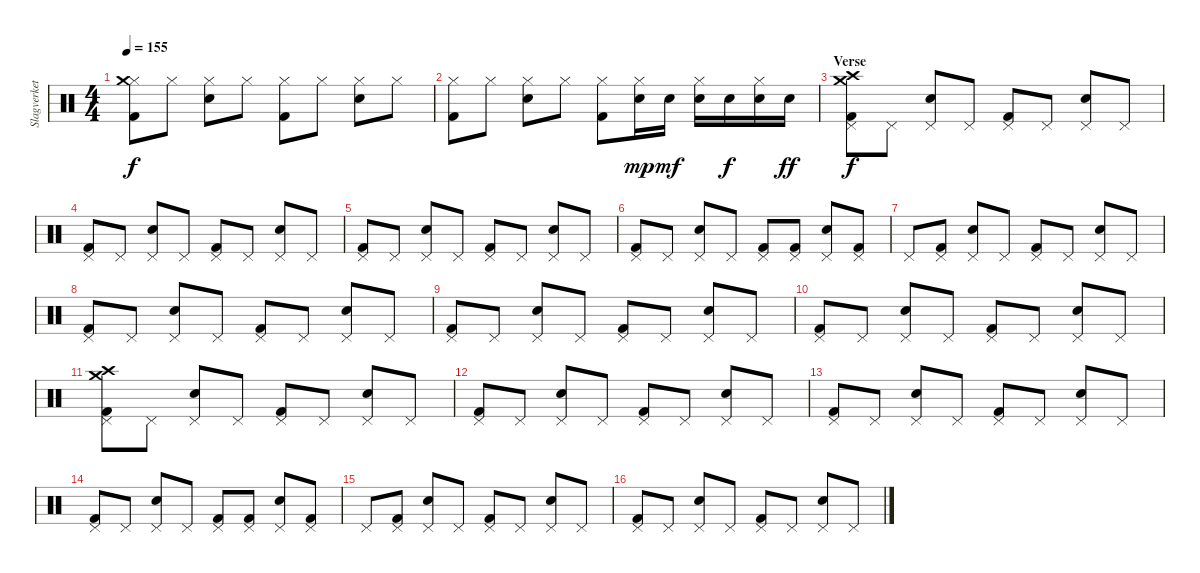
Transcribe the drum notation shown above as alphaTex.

\track ("Slagverket!" "Slagverket") {instrument percussion}
\staff {score}
\articulation defaults
\ts (4 4)
\tempo 155
\clef neutral
\ks c
("Hi-Hat (closed)" "Crash medium (hit)" "Kick (hit) 2").8{dy f} "Hi-Hat (closed)".8 ("Hi-Hat (closed)" "Electric Snare (hit)").8 "Hi-Hat (closed)".8 ("Hi-Hat (closed)" "Kick (hit) 2").8 "Hi-Hat (closed)".8 ("Hi-Hat (closed)" "Electric Snare (hit)").8 "Hi-Hat (closed)".8 |
("Hi-Hat (closed)" "Kick (hit) 2").8 "Hi-Hat (closed)".8 ("Hi-Hat (closed)" "Electric Snare (hit)").8 "Hi-Hat (closed)".8 ("Hi-Hat (closed)" "Kick (hit) 2").8 ("Hi-Hat (closed)" "Electric Snare (hit)").16{dy mp} "Electric Snare (hit)".16{dy mf} ("Hi-Hat (closed)" "Electric Snare (hit)").16 "Electric Snare (hit)".16{dy f} ("Hi-Hat (closed)" "Electric Snare (hit)").16 "Electric Snare (hit)".16{dy ff} |
\section ("" "Verse")
("Pedal Hi-Hat (hit)" "Crash medium (hit)" "Crash high (hit)" "Kick (hit) 2").8{dy f} "Pedal Hi-Hat (hit)".8 ("Pedal Hi-Hat (hit)" "Electric Snare (hit)").8 "Pedal Hi-Hat (hit)".8 ("Pedal Hi-Hat (hit)" "Kick (hit) 2").8 "Pedal Hi-Hat (hit)".8 ("Pedal Hi-Hat (hit)" "Electric Snare (hit)").8 "Pedal Hi-Hat (hit)".8 |
("Pedal Hi-Hat (hit)" "Kick (hit) 2").8 "Pedal Hi-Hat (hit)".8 ("Pedal Hi-Hat (hit)" "Electric Snare (hit)").8 "Pedal Hi-Hat (hit)".8 ("Pedal Hi-Hat (hit)" "Kick (hit) 2").8 "Pedal Hi-Hat (hit)".8 ("Pedal Hi-Hat (hit)" "Electric Snare (hit)").8 "Pedal Hi-Hat (hit)".8 |
("Pedal Hi-Hat (hit)" "Kick (hit) 2").8 "Pedal Hi-Hat (hit)".8 ("Pedal Hi-Hat (hit)" "Electric Snare (hit)").8 "Pedal Hi-Hat (hit)".8 ("Pedal Hi-Hat (hit)" "Kick (hit) 2").8 "Pedal Hi-Hat (hit)".8 ("Pedal Hi-Hat (hit)" "Electric Snare (hit)").8 "Pedal Hi-Hat (hit)".8 |
("Pedal Hi-Hat (hit)" "Kick (hit) 2").8 "Pedal Hi-Hat (hit)".8 ("Pedal Hi-Hat (hit)" "Electric Snare (hit)").8 "Pedal Hi-Hat (hit)".8 ("Pedal Hi-Hat (hit)" "Kick (hit) 2").8 ("Pedal Hi-Hat (hit)" "Kick (hit) 2").8 ("Pedal Hi-Hat (hit)" "Electric Snare (hit)").8 ("Pedal Hi-Hat (hit)" "Kick (hit) 2").8 |
"Pedal Hi-Hat (hit)".8 ("Pedal Hi-Hat (hit)" "Kick (hit) 2").8 ("Pedal Hi-Hat (hit)" "Electric Snare (hit)").8 "Pedal Hi-Hat (hit)".8 ("Pedal Hi-Hat (hit)" "Kick (hit) 2").8 "Pedal Hi-Hat (hit)".8 ("Pedal Hi-Hat (hit)" "Electric Snare (hit)").8 "Pedal Hi-Hat (hit)".8 |
("Pedal Hi-Hat (hit)" "Kick (hit) 2").8 "Pedal Hi-Hat (hit)".8 ("Pedal Hi-Hat (hit)" "Electric Snare (hit)").8 "Pedal Hi-Hat (hit)".8 ("Pedal Hi-Hat (hit)" "Kick (hit) 2").8 "Pedal Hi-Hat (hit)".8 ("Pedal Hi-Hat (hit)" "Electric Snare (hit)").8 "Pedal Hi-Hat (hit)".8 |
("Pedal Hi-Hat (hit)" "Kick (hit) 2").8 "Pedal Hi-Hat (hit)".8 ("Pedal Hi-Hat (hit)" "Electric Snare (hit)").8 "Pedal Hi-Hat (hit)".8 ("Pedal Hi-Hat (hit)" "Kick (hit) 2").8 "Pedal Hi-Hat (hit)".8 ("Pedal Hi-Hat (hit)" "Electric Snare (hit)").8 "Pedal Hi-Hat (hit)".8 |
("Pedal Hi-Hat (hit)" "Kick (hit) 2").8 "Pedal Hi-Hat (hit)".8 ("Pedal Hi-Hat (hit)" "Electric Snare (hit)").8 "Pedal Hi-Hat (hit)".8 ("Pedal Hi-Hat (hit)" "Kick (hit) 2").8 "Pedal Hi-Hat (hit)".8 ("Pedal Hi-Hat (hit)" "Electric Snare (hit)").8 "Pedal Hi-Hat (hit)".8 |
\section ("" "")
("Pedal Hi-Hat (hit)" "Crash medium (hit)" "Crash high (hit)" "Kick (hit) 2").8 "Pedal Hi-Hat (hit)".8 ("Pedal Hi-Hat (hit)" "Electric Snare (hit)").8 "Pedal Hi-Hat (hit)".8 ("Pedal Hi-Hat (hit)" "Kick (hit) 2").8 "Pedal Hi-Hat (hit)".8 ("Pedal Hi-Hat (hit)" "Electric Snare (hit)").8 "Pedal Hi-Hat (hit)".8 |
("Pedal Hi-Hat (hit)" "Kick (hit) 2").8 "Pedal Hi-Hat (hit)".8 ("Pedal Hi-Hat (hit)" "Electric Snare (hit)").8 "Pedal Hi-Hat (hit)".8 ("Pedal Hi-Hat (hit)" "Kick (hit) 2").8 "Pedal Hi-Hat (hit)".8 ("Pedal Hi-Hat (hit)" "Electric Snare (hit)").8 "Pedal Hi-Hat (hit)".8 |
("Pedal Hi-Hat (hit)" "Kick (hit) 2").8 "Pedal Hi-Hat (hit)".8 ("Pedal Hi-Hat (hit)" "Electric Snare (hit)").8 "Pedal Hi-Hat (hit)".8 ("Pedal Hi-Hat (hit)" "Kick (hit) 2").8 "Pedal Hi-Hat (hit)".8 ("Pedal Hi-Hat (hit)" "Electric Snare (hit)").8 "Pedal Hi-Hat (hit)".8 |
("Pedal Hi-Hat (hit)" "Kick (hit) 2").8 "Pedal Hi-Hat (hit)".8 ("Pedal Hi-Hat (hit)" "Electric Snare (hit)").8 "Pedal Hi-Hat (hit)".8 ("Pedal Hi-Hat (hit)" "Kick (hit) 2").8 ("Pedal Hi-Hat (hit)" "Kick (hit) 2").8 ("Pedal Hi-Hat (hit)" "Electric Snare (hit)").8 ("Pedal Hi-Hat (hit)" "Kick (hit) 2").8 |
"Pedal Hi-Hat (hit)".8 ("Pedal Hi-Hat (hit)" "Kick (hit) 2").8 ("Pedal Hi-Hat (hit)" "Electric Snare (hit)").8 "Pedal Hi-Hat (hit)".8 ("Pedal Hi-Hat (hit)" "Kick (hit) 2").8 "Pedal Hi-Hat (hit)".8 ("Pedal Hi-Hat (hit)" "Electric Snare (hit)").8 "Pedal Hi-Hat (hit)".8 |
("Pedal Hi-Hat (hit)" "Kick (hit) 2").8 "Pedal Hi-Hat (hit)".8 ("Pedal Hi-Hat (hit)" "Electric Snare (hit)").8 "Pedal Hi-Hat (hit)".8 ("Pedal Hi-Hat (hit)" "Kick (hit) 2").8 "Pedal Hi-Hat (hit)".8 ("Pedal Hi-Hat (hit)" "Electric Snare (hit)").8 "Pedal Hi-Hat (hit)".8
